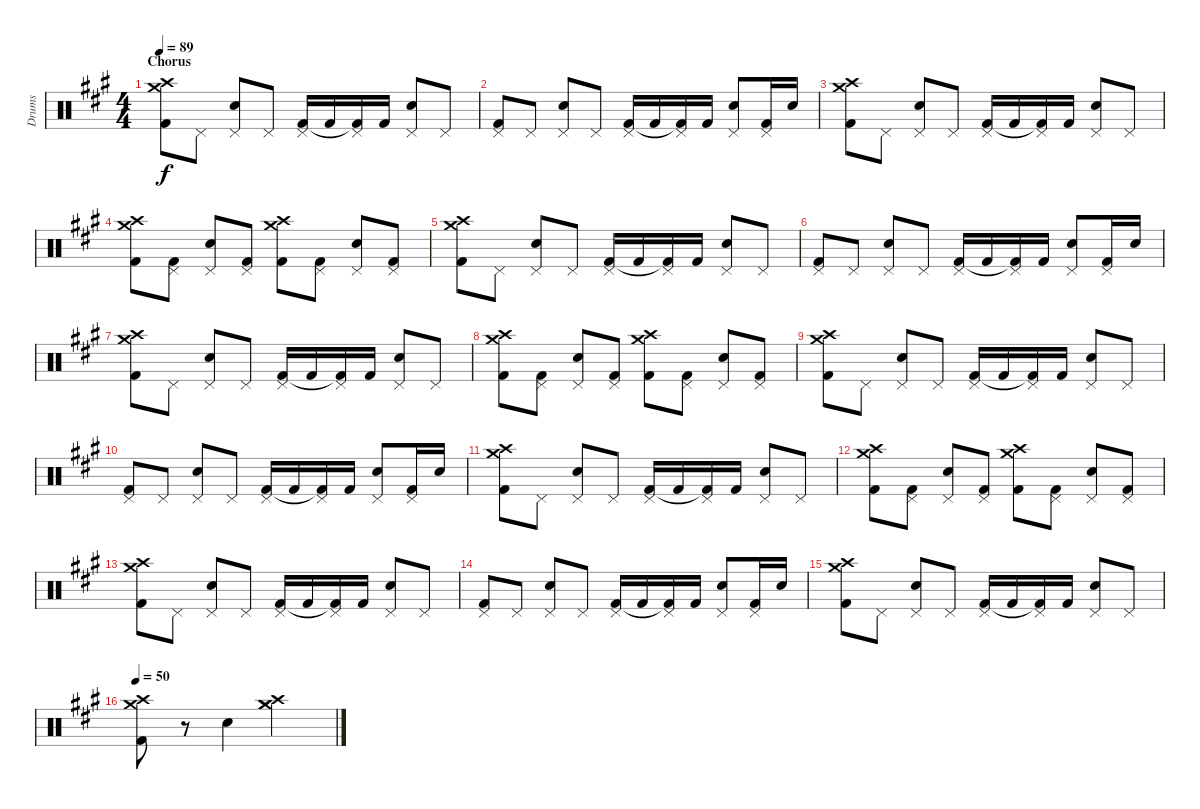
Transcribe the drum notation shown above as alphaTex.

\track ("Drums" "Drums") {instrument percussion}
\staff {score}
\articulation defaults
\ts (4 4)
\section ("" "Chorus")
\tempo 89
\clef neutral
\ks a
("Crash high (hit)" "Crash medium (hit)" "Kick (hit) 2").8{dy f} "Pedal Hi-Hat (hit)".8 ("Pedal Hi-Hat (hit)" "Snare (hit) 2").8 "Pedal Hi-Hat (hit)".8 ("Pedal Hi-Hat (hit)" "Kick (hit) 2").16 "Kick (hit) 2".16 ("Pedal Hi-Hat (hit)" "Kick (hit) 2"{t}).16 "Kick (hit) 2".16 ("Pedal Hi-Hat (hit)" "Snare (hit) 2").8 "Pedal Hi-Hat (hit)".8 |
("Pedal Hi-Hat (hit)" "Kick (hit) 2").8 "Pedal Hi-Hat (hit)".8 ("Pedal Hi-Hat (hit)" "Snare (hit) 2").8 "Pedal Hi-Hat (hit)".8 ("Pedal Hi-Hat (hit)" "Kick (hit) 2").16 "Kick (hit) 2".16 ("Pedal Hi-Hat (hit)" "Kick (hit) 2"{t}).16 "Kick (hit) 2".16 ("Pedal Hi-Hat (hit)" "Snare (hit) 2").8 ("Pedal Hi-Hat (hit)" "Kick (hit) 2").16 "Snare (hit) 2".16 |
("Crash high (hit)" "Crash medium (hit)" "Kick (hit) 2").8 "Pedal Hi-Hat (hit)".8 ("Pedal Hi-Hat (hit)" "Snare (hit) 2").8 "Pedal Hi-Hat (hit)".8 ("Pedal Hi-Hat (hit)" "Kick (hit) 2").16 "Kick (hit) 2".16 ("Pedal Hi-Hat (hit)" "Kick (hit) 2"{t}).16 "Kick (hit) 2".16 ("Pedal Hi-Hat (hit)" "Snare (hit) 2").8 "Pedal Hi-Hat (hit)".8 |
("Crash high (hit)" "Crash medium (hit)" "Kick (hit) 2").8 ("Pedal Hi-Hat (hit)" "Kick (hit) 2").8 ("Pedal Hi-Hat (hit)" "Snare (hit) 2").8 ("Pedal Hi-Hat (hit)" "Kick (hit) 2").8 ("Crash high (hit)" "Crash medium (hit)" "Kick (hit) 2").8 ("Pedal Hi-Hat (hit)" "Kick (hit) 2").8 ("Pedal Hi-Hat (hit)" "Snare (hit) 2").8 ("Pedal Hi-Hat (hit)" "Kick (hit) 2").8 |
("Crash high (hit)" "Crash medium (hit)" "Kick (hit) 2").8 "Pedal Hi-Hat (hit)".8 ("Pedal Hi-Hat (hit)" "Snare (hit) 2").8 "Pedal Hi-Hat (hit)".8 ("Pedal Hi-Hat (hit)" "Kick (hit) 2").16 "Kick (hit) 2".16 ("Pedal Hi-Hat (hit)" "Kick (hit) 2"{t}).16 "Kick (hit) 2".16 ("Pedal Hi-Hat (hit)" "Snare (hit) 2").8 "Pedal Hi-Hat (hit)".8 |
("Pedal Hi-Hat (hit)" "Kick (hit) 2").8 "Pedal Hi-Hat (hit)".8 ("Pedal Hi-Hat (hit)" "Snare (hit) 2").8 "Pedal Hi-Hat (hit)".8 ("Pedal Hi-Hat (hit)" "Kick (hit) 2").16 "Kick (hit) 2".16 ("Pedal Hi-Hat (hit)" "Kick (hit) 2"{t}).16 "Kick (hit) 2".16 ("Pedal Hi-Hat (hit)" "Snare (hit) 2").8 ("Pedal Hi-Hat (hit)" "Kick (hit) 2").16 "Snare (hit) 2".16 |
("Crash high (hit)" "Crash medium (hit)" "Kick (hit) 2").8 "Pedal Hi-Hat (hit)".8 ("Pedal Hi-Hat (hit)" "Snare (hit) 2").8 "Pedal Hi-Hat (hit)".8 ("Pedal Hi-Hat (hit)" "Kick (hit) 2").16 "Kick (hit) 2".16 ("Pedal Hi-Hat (hit)" "Kick (hit) 2"{t}).16 "Kick (hit) 2".16 ("Pedal Hi-Hat (hit)" "Snare (hit) 2").8 "Pedal Hi-Hat (hit)".8 |
("Crash high (hit)" "Crash medium (hit)" "Kick (hit) 2").8 ("Pedal Hi-Hat (hit)" "Kick (hit) 2").8 ("Pedal Hi-Hat (hit)" "Snare (hit) 2").8 ("Pedal Hi-Hat (hit)" "Kick (hit) 2").8 ("Crash high (hit)" "Crash medium (hit)" "Kick (hit) 2").8 ("Pedal Hi-Hat (hit)" "Kick (hit) 2").8 ("Pedal Hi-Hat (hit)" "Snare (hit) 2").8 ("Pedal Hi-Hat (hit)" "Kick (hit) 2").8 |
("Crash high (hit)" "Crash medium (hit)" "Kick (hit) 2").8 "Pedal Hi-Hat (hit)".8 ("Pedal Hi-Hat (hit)" "Snare (hit) 2").8 "Pedal Hi-Hat (hit)".8 ("Pedal Hi-Hat (hit)" "Kick (hit) 2").16 "Kick (hit) 2".16 ("Pedal Hi-Hat (hit)" "Kick (hit) 2"{t}).16 "Kick (hit) 2".16 ("Pedal Hi-Hat (hit)" "Snare (hit) 2").8 "Pedal Hi-Hat (hit)".8 |
("Pedal Hi-Hat (hit)" "Kick (hit) 2").8 "Pedal Hi-Hat (hit)".8 ("Pedal Hi-Hat (hit)" "Snare (hit) 2").8 "Pedal Hi-Hat (hit)".8 ("Pedal Hi-Hat (hit)" "Kick (hit) 2").16 "Kick (hit) 2".16 ("Pedal Hi-Hat (hit)" "Kick (hit) 2"{t}).16 "Kick (hit) 2".16 ("Pedal Hi-Hat (hit)" "Snare (hit) 2").8 ("Pedal Hi-Hat (hit)" "Kick (hit) 2").16 "Snare (hit) 2".16 |
("Crash high (hit)" "Crash medium (hit)" "Kick (hit) 2").8 "Pedal Hi-Hat (hit)".8 ("Pedal Hi-Hat (hit)" "Snare (hit) 2").8 "Pedal Hi-Hat (hit)".8 ("Pedal Hi-Hat (hit)" "Kick (hit) 2").16 "Kick (hit) 2".16 ("Pedal Hi-Hat (hit)" "Kick (hit) 2"{t}).16 "Kick (hit) 2".16 ("Pedal Hi-Hat (hit)" "Snare (hit) 2").8 "Pedal Hi-Hat (hit)".8 |
("Crash high (hit)" "Crash medium (hit)" "Kick (hit) 2").8 ("Pedal Hi-Hat (hit)" "Kick (hit) 2").8 ("Pedal Hi-Hat (hit)" "Snare (hit) 2").8 ("Pedal Hi-Hat (hit)" "Kick (hit) 2").8 ("Crash high (hit)" "Crash medium (hit)" "Kick (hit) 2").8 ("Pedal Hi-Hat (hit)" "Kick (hit) 2").8 ("Pedal Hi-Hat (hit)" "Snare (hit) 2").8 ("Pedal Hi-Hat (hit)" "Kick (hit) 2").8 |
("Crash high (hit)" "Crash medium (hit)" "Kick (hit) 2").8 "Pedal Hi-Hat (hit)".8 ("Pedal Hi-Hat (hit)" "Snare (hit) 2").8 "Pedal Hi-Hat (hit)".8 ("Pedal Hi-Hat (hit)" "Kick (hit) 2").16 "Kick (hit) 2".16 ("Pedal Hi-Hat (hit)" "Kick (hit) 2"{t}).16 "Kick (hit) 2".16 ("Pedal Hi-Hat (hit)" "Snare (hit) 2").8 "Pedal Hi-Hat (hit)".8 |
("Pedal Hi-Hat (hit)" "Kick (hit) 2").8 "Pedal Hi-Hat (hit)".8 ("Pedal Hi-Hat (hit)" "Snare (hit) 2").8 "Pedal Hi-Hat (hit)".8 ("Pedal Hi-Hat (hit)" "Kick (hit) 2").16 "Kick (hit) 2".16 ("Pedal Hi-Hat (hit)" "Kick (hit) 2"{t}).16 "Kick (hit) 2".16 ("Pedal Hi-Hat (hit)" "Snare (hit) 2").8 ("Pedal Hi-Hat (hit)" "Kick (hit) 2").16 "Snare (hit) 2".16 |
("Crash high (hit)" "Crash medium (hit)" "Kick (hit) 2").8 "Pedal Hi-Hat (hit)".8 ("Pedal Hi-Hat (hit)" "Snare (hit) 2").8 "Pedal Hi-Hat (hit)".8 ("Pedal Hi-Hat (hit)" "Kick (hit) 2").16 "Kick (hit) 2".16 ("Pedal Hi-Hat (hit)" "Kick (hit) 2"{t}).16 "Kick (hit) 2".16 ("Pedal Hi-Hat (hit)" "Snare (hit) 2").8 "Pedal Hi-Hat (hit)".8 |
\tempo 50
("Crash high (hit)" "Crash medium (hit)" "Kick (hit) 2").8 r.8 "Snare (hit) 2".4 ("Crash high (hit)" "Crash medium (hit)" "Crash medium (hit)").2
